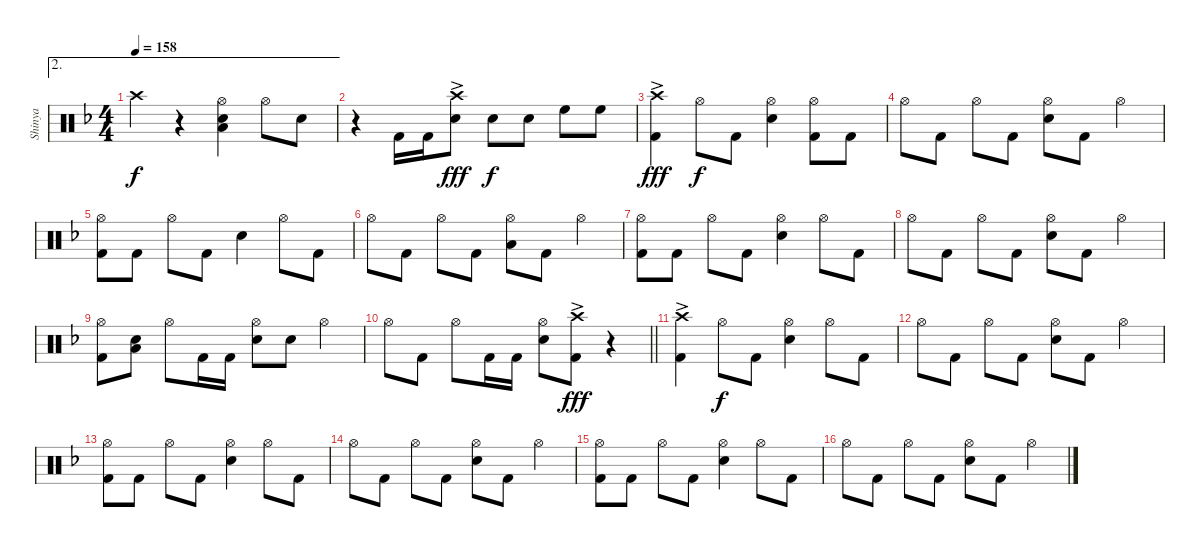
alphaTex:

\track ("Shinya" "Shinya") {instrument percussion}
\staff {score}
\articulation defaults
\ae 2
\ts (4 4)
\tempo 158
\clef neutral
\ks f "Crash high (hit)".4{dy f}
r.4 ("Hi-Hat (open)" "Snare (hit) 2" "Low Floor Tom (hit)").4 "Hi-Hat (open)".8 "Snare (hit) 2".8 |
r.4 "Kick (hit) 2".16 "Kick (hit) 2".16 ("Crash high (hit)"{ac} "Snare (hit) 2").8{dy fff} "Snare (hit) 2".8{dy f} "Snare (hit) 2".8 "High Floor Tom (hit)".8 "High Floor Tom (hit)".8 |
("Crash high (hit)"{ac} "Kick (hit) 2").4{dy fff} "Hi-Hat (open)".8{dy f} "Kick (hit) 2".8 ("Hi-Hat (open)" "Snare (hit) 2").4 ("Hi-Hat (open)" "Kick (hit) 2").8 "Kick (hit) 2".8 |
"Hi-Hat (open)".8 "Kick (hit) 2".8 "Hi-Hat (open)".8 "Kick (hit) 2".8 ("Hi-Hat (open)" "Snare (hit) 2").8 "Kick (hit) 2".8 "Hi-Hat (open)".4 |
("Hi-Hat (open)" "Kick (hit) 2").8 "Kick (hit) 2".8 "Hi-Hat (open)".8 "Kick (hit) 2".8 "Snare (hit) 2".4 "Hi-Hat (open)".8 "Kick (hit) 2".8 |
"Hi-Hat (open)".8 "Kick (hit) 2".8 "Hi-Hat (open)".8 "Kick (hit) 2".8 ("Hi-Hat (open)" "Low Tom (hit)").8 "Kick (hit) 2".8 "Hi-Hat (open)".4 |
("Hi-Hat (open)" "Kick (hit) 2").8 "Kick (hit) 2".8 "Hi-Hat (open)".8 "Kick (hit) 2".8 ("Hi-Hat (open)" "Snare (hit) 2").4 "Hi-Hat (open)".8 "Kick (hit) 2".8 |
"Hi-Hat (open)".8 "Kick (hit) 2".8 "Hi-Hat (open)".8 "Kick (hit) 2".8 ("Hi-Hat (open)" "Snare (hit) 2").8 "Kick (hit) 2".8 "Hi-Hat (open)".4 |
("Hi-Hat (open)" "Kick (hit) 2").8 ("Low Floor Tom (hit)" "Snare (hit) 2").8 "Hi-Hat (open)".8 "Kick (hit) 2".16 "Kick (hit) 2".16 ("Hi-Hat (open)" "Snare (hit) 2").8 "Snare (hit) 2".8 "Hi-Hat (open)".4 |
\barLineRight lightlight "Hi-Hat (open)".8 "Kick (hit) 2".8 "Hi-Hat (open)".8 "Kick (hit) 2".16 "Kick (hit) 2".16
("Hi-Hat (open)" "Snare (hit) 2").8 ("Crash high (hit)"{ac} "Kick (hit) 2").8{dy fff} r.4 |
("Crash high (hit)"{ac} "Kick (hit) 2").4 "Hi-Hat (open)".8{dy f} "Kick (hit) 2".8 ("Hi-Hat (open)" "Snare (hit) 2").4 "Hi-Hat (open)".8 "Kick (hit) 2".8 |
"Hi-Hat (open)".8 "Kick (hit) 2".8 "Hi-Hat (open)".8 "Kick (hit) 2".8 ("Hi-Hat (open)" "Snare (hit) 2").8 "Kick (hit) 2".8 "Hi-Hat (open)".4 |
("Hi-Hat (open)" "Kick (hit) 2").8 "Kick (hit) 2".8 "Hi-Hat (open)".8 "Kick (hit) 2".8 ("Hi-Hat (open)" "Snare (hit) 2").4 "Hi-Hat (open)".8 "Kick (hit) 2".8 |
"Hi-Hat (open)".8 "Kick (hit) 2".8 "Hi-Hat (open)".8 "Kick (hit) 2".8 ("Hi-Hat (open)" "Snare (hit) 2").8 "Kick (hit) 2".8 "Hi-Hat (open)".4 |
("Hi-Hat (open)" "Kick (hit) 2").8 "Kick (hit) 2".8 "Hi-Hat (open)".8 "Kick (hit) 2".8 ("Hi-Hat (open)" "Snare (hit) 2").4 "Hi-Hat (open)".8 "Kick (hit) 2".8 |
"Hi-Hat (open)".8 "Kick (hit) 2".8 "Hi-Hat (open)".8 "Kick (hit) 2".8 ("Hi-Hat (open)" "Snare (hit) 2").8 "Kick (hit) 2".8 "Hi-Hat (open)".4
